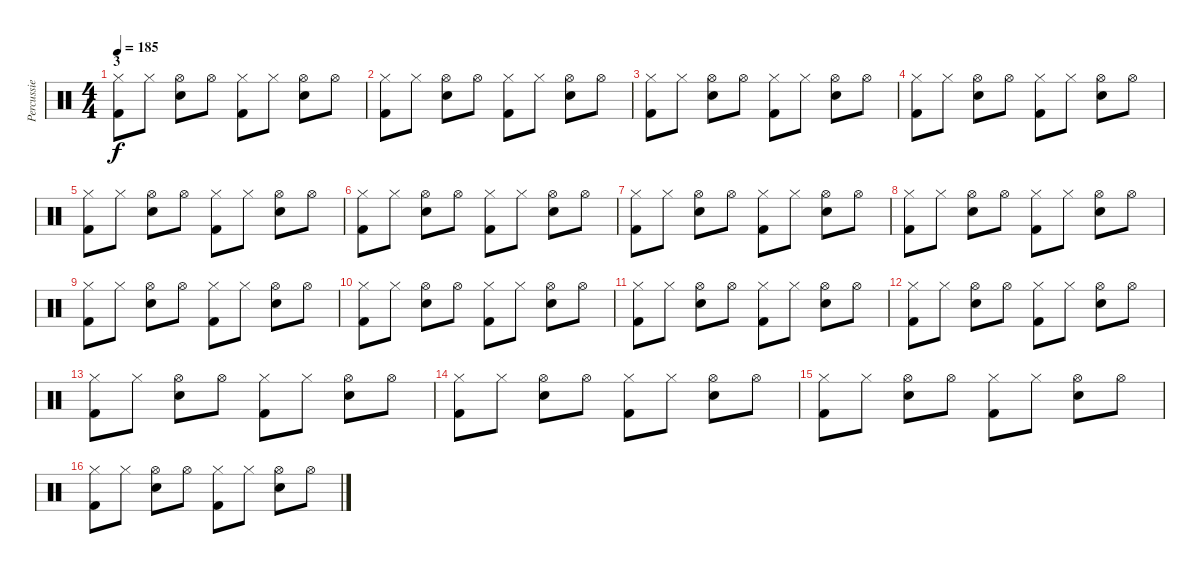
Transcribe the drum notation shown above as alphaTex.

\track ("Percussie" "Percussie") {instrument percussion}
\staff {score}
\articulation defaults
\ts (4 4)
\section ("" "3")
\tempo 185
\clef neutral
\ks c
("Hi-Hat (closed)" "Kick (hit) 2").8{dy f} "Hi-Hat (closed)".8 ("Hi-Hat (open)" "Snare (hit) 2").8 "Hi-Hat (open)".8 ("Hi-Hat (closed)" "Kick (hit) 2").8 "Hi-Hat (closed)".8 ("Hi-Hat (open)" "Snare (hit) 2").8 "Hi-Hat (open)".8 |
("Hi-Hat (closed)" "Kick (hit) 2").8 "Hi-Hat (closed)".8 ("Hi-Hat (open)" "Snare (hit) 2").8 "Hi-Hat (open)".8 ("Hi-Hat (closed)" "Kick (hit) 2").8 "Hi-Hat (closed)".8 ("Hi-Hat (open)" "Snare (hit) 2").8 "Hi-Hat (open)".8 |
("Hi-Hat (closed)" "Kick (hit) 2").8 "Hi-Hat (closed)".8 ("Hi-Hat (open)" "Snare (hit) 2").8 "Hi-Hat (open)".8 ("Hi-Hat (closed)" "Kick (hit) 2").8 "Hi-Hat (closed)".8 ("Hi-Hat (open)" "Snare (hit) 2").8 "Hi-Hat (open)".8 |
("Hi-Hat (closed)" "Kick (hit) 2").8 "Hi-Hat (closed)".8 ("Hi-Hat (open)" "Snare (hit) 2").8 "Hi-Hat (open)".8 ("Hi-Hat (closed)" "Kick (hit) 2").8 "Hi-Hat (closed)".8 ("Hi-Hat (open)" "Snare (hit) 2").8 "Hi-Hat (open)".8 |
("Hi-Hat (closed)" "Kick (hit) 2").8 "Hi-Hat (closed)".8 ("Hi-Hat (open)" "Snare (hit) 2").8 "Hi-Hat (open)".8 ("Hi-Hat (closed)" "Kick (hit) 2").8 "Hi-Hat (closed)".8 ("Hi-Hat (open)" "Snare (hit) 2").8 "Hi-Hat (open)".8 |
("Hi-Hat (closed)" "Kick (hit) 2").8 "Hi-Hat (closed)".8 ("Hi-Hat (open)" "Snare (hit) 2").8 "Hi-Hat (open)".8 ("Hi-Hat (closed)" "Kick (hit) 2").8 "Hi-Hat (closed)".8 ("Hi-Hat (open)" "Snare (hit) 2").8 "Hi-Hat (open)".8 |
("Hi-Hat (closed)" "Kick (hit) 2").8 "Hi-Hat (closed)".8 ("Hi-Hat (open)" "Snare (hit) 2").8 "Hi-Hat (open)".8 ("Hi-Hat (closed)" "Kick (hit) 2").8 "Hi-Hat (closed)".8 ("Hi-Hat (open)" "Snare (hit) 2").8 "Hi-Hat (open)".8 |
("Hi-Hat (closed)" "Kick (hit) 2").8 "Hi-Hat (closed)".8 ("Hi-Hat (open)" "Snare (hit) 2").8 "Hi-Hat (open)".8 ("Hi-Hat (closed)" "Kick (hit) 2").8 "Hi-Hat (closed)".8 ("Hi-Hat (open)" "Snare (hit) 2").8 "Hi-Hat (open)".8 |
("Hi-Hat (closed)" "Kick (hit) 2").8 "Hi-Hat (closed)".8 ("Hi-Hat (open)" "Snare (hit) 2").8 "Hi-Hat (open)".8 ("Hi-Hat (closed)" "Kick (hit) 2").8 "Hi-Hat (closed)".8 ("Hi-Hat (open)" "Snare (hit) 2").8 "Hi-Hat (open)".8 |
("Hi-Hat (closed)" "Kick (hit) 2").8 "Hi-Hat (closed)".8 ("Hi-Hat (open)" "Snare (hit) 2").8 "Hi-Hat (open)".8 ("Hi-Hat (closed)" "Kick (hit) 2").8 "Hi-Hat (closed)".8 ("Hi-Hat (open)" "Snare (hit) 2").8 "Hi-Hat (open)".8 |
("Hi-Hat (closed)" "Kick (hit) 2").8 "Hi-Hat (closed)".8 ("Hi-Hat (open)" "Snare (hit) 2").8 "Hi-Hat (open)".8 ("Hi-Hat (closed)" "Kick (hit) 2").8 "Hi-Hat (closed)".8 ("Hi-Hat (open)" "Snare (hit) 2").8 "Hi-Hat (open)".8 |
("Hi-Hat (closed)" "Kick (hit) 2").8 "Hi-Hat (closed)".8 ("Hi-Hat (open)" "Snare (hit) 2").8 "Hi-Hat (open)".8 ("Hi-Hat (closed)" "Kick (hit) 2").8 "Hi-Hat (closed)".8 ("Hi-Hat (open)" "Snare (hit) 2").8 "Hi-Hat (open)".8 |
("Hi-Hat (closed)" "Kick (hit) 2").8 "Hi-Hat (closed)".8 ("Hi-Hat (open)" "Snare (hit) 2").8 "Hi-Hat (open)".8 ("Hi-Hat (closed)" "Kick (hit) 2").8 "Hi-Hat (closed)".8 ("Hi-Hat (open)" "Snare (hit) 2").8 "Hi-Hat (open)".8 |
("Hi-Hat (closed)" "Kick (hit) 2").8 "Hi-Hat (closed)".8 ("Hi-Hat (open)" "Snare (hit) 2").8 "Hi-Hat (open)".8 ("Hi-Hat (closed)" "Kick (hit) 2").8 "Hi-Hat (closed)".8 ("Hi-Hat (open)" "Snare (hit) 2").8 "Hi-Hat (open)".8 |
("Hi-Hat (closed)" "Kick (hit) 2").8 "Hi-Hat (closed)".8 ("Hi-Hat (open)" "Snare (hit) 2").8 "Hi-Hat (open)".8 ("Hi-Hat (closed)" "Kick (hit) 2").8 "Hi-Hat (closed)".8 ("Hi-Hat (open)" "Snare (hit) 2").8 "Hi-Hat (open)".8 |
("Hi-Hat (closed)" "Kick (hit) 2").8 "Hi-Hat (closed)".8 ("Hi-Hat (open)" "Snare (hit) 2").8 "Hi-Hat (open)".8 ("Hi-Hat (closed)" "Kick (hit) 2").8 "Hi-Hat (closed)".8 ("Hi-Hat (open)" "Snare (hit) 2").8 "Hi-Hat (open)".8
